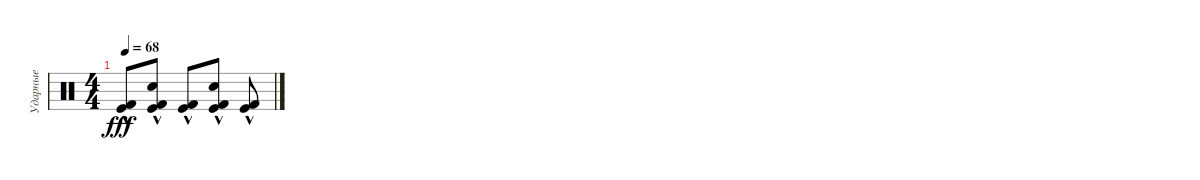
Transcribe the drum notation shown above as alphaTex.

\track ("Ударные" "Ударные") {instrument percussion}
\staff {score}
\articulation defaults
\ts (4 4)
\tempo 68
\clef neutral
\ks c
("Kick (hit)"{hac} "Kick (hit) 2"{hac}).8{dy fff} ("Kick (hit)"{hac} "Kick (hit) 2"{hac} "Hand Clap (hit)").8 ("Kick (hit)"{hac} "Kick (hit) 2"{hac}).8 ("Kick (hit)"{hac} "Kick (hit) 2"{hac} "Hand Clap (hit)").8 ("Kick (hit)"{hac} "Kick (hit) 2"{hac}).8
